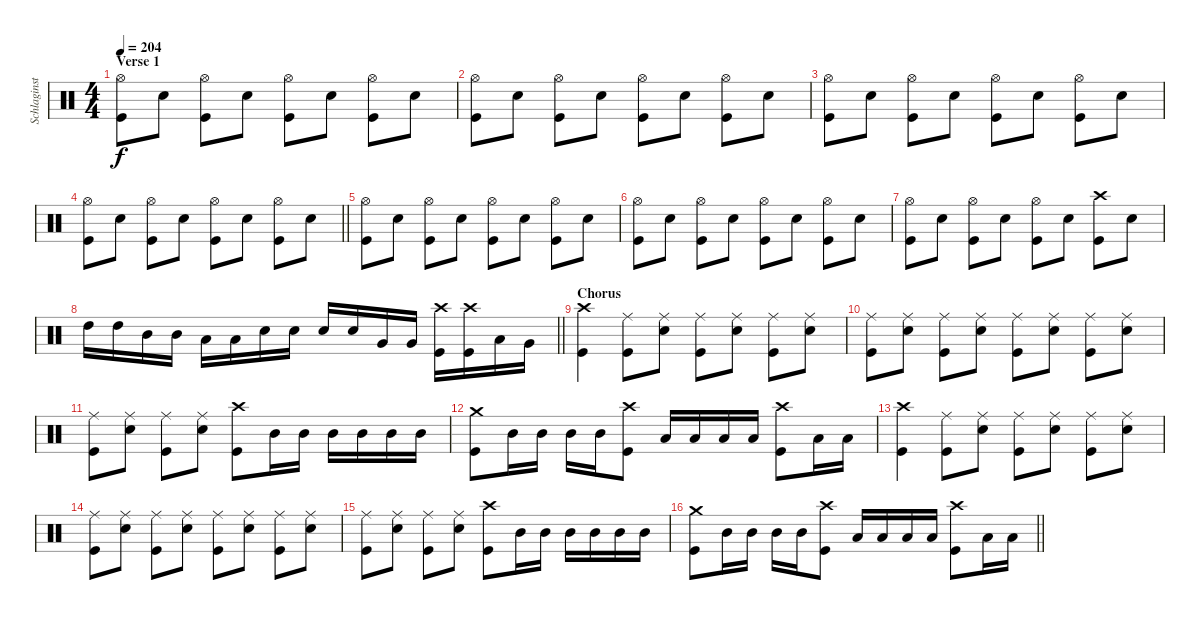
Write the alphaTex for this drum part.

\track ("Schlaginstrumente - Auswahl" "Schlaginst") {instrument percussion}
\staff {score}
\articulation defaults
\ts (4 4)
\section ("" "Verse 1")
\tempo 204
\clef neutral
\ks c
("Kick (hit)" "Hi-Hat (open)").8{dy f} "Snare (hit) 2".8 ("Kick (hit)" "Hi-Hat (open)").8 "Snare (hit) 2".8 ("Kick (hit)" "Hi-Hat (open)").8 "Snare (hit) 2".8 ("Kick (hit)" "Hi-Hat (open)").8 "Snare (hit) 2".8 |
("Kick (hit)" "Hi-Hat (open)").8 "Snare (hit) 2".8 ("Kick (hit)" "Hi-Hat (open)").8 "Snare (hit) 2".8 ("Kick (hit)" "Hi-Hat (open)").8 "Snare (hit) 2".8 ("Kick (hit)" "Hi-Hat (open)").8 "Snare (hit) 2".8 |
("Kick (hit)" "Hi-Hat (open)").8 "Snare (hit) 2".8 ("Kick (hit)" "Hi-Hat (open)").8 "Snare (hit) 2".8 ("Kick (hit)" "Hi-Hat (open)").8 "Snare (hit) 2".8 ("Kick (hit)" "Hi-Hat (open)").8 "Snare (hit) 2".8 |
\barLineRight lightlight
("Kick (hit)" "Hi-Hat (open)").8 "Snare (hit) 2".8 ("Kick (hit)" "Hi-Hat (open)").8 "Snare (hit) 2".8 ("Kick (hit)" "Hi-Hat (open)").8 "Snare (hit) 2".8 ("Kick (hit)" "Hi-Hat (open)").8 "Snare (hit) 2".8 |
("Kick (hit)" "Hi-Hat (open)").8 "Snare (hit) 2".8 ("Kick (hit)" "Hi-Hat (open)").8 "Snare (hit) 2".8 ("Kick (hit)" "Hi-Hat (open)").8 "Snare (hit) 2".8 ("Kick (hit)" "Hi-Hat (open)").8 "Snare (hit) 2".8 |
("Kick (hit)" "Hi-Hat (open)").8 "Snare (hit) 2".8 ("Kick (hit)" "Hi-Hat (open)").8 "Snare (hit) 2".8 ("Kick (hit)" "Hi-Hat (open)").8 "Snare (hit) 2".8 ("Kick (hit)" "Hi-Hat (open)").8 "Snare (hit) 2".8 |
("Kick (hit)" "Hi-Hat (open)").8 "Snare (hit) 2".8 ("Kick (hit)" "Hi-Hat (open)").8 "Snare (hit) 2".8 ("Kick (hit)" "Hi-Hat (open)").8 "Snare (hit) 2".8 ("Kick (hit)" "Crash high (hit)").8 "Snare (hit) 2".8 |
\barLineRight lightlight "High Tom (hit)".16 "High Tom (hit)".16 "Mid Tom (hit)".16 "Mid Tom (hit)".16 "Low Tom (hit)".16 "Low Tom (hit)".16 "Snare (hit) 2".16 "Snare (hit) 2".16 "Snare (hit) 2".16 "Snare (hit) 2".16 "Very Low Tom (hit)".16 "Very Low Tom (hit)".16
("Crash high (hit)" "Kick (hit)").16 ("Crash high (hit)" "Kick (hit)").16 "Low Tom (hit)".16 "Very Low Tom (hit)".16 |
\section ("" "Chorus")
("Kick (hit)" "Crash high (hit)").4 ("Kick (hit)" "Ride (middle)").8 ("Snare (hit) 2" "Ride (middle)").8 ("Kick (hit)" "Ride (middle)").8 ("Snare (hit) 2" "Ride (middle)").8 ("Kick (hit)" "Ride (middle)").8 ("Snare (hit) 2" "Ride (middle)").8 |
("Kick (hit)" "Ride (middle)").8 ("Snare (hit) 2" "Ride (middle)").8 ("Kick (hit)" "Ride (middle)").8 ("Snare (hit) 2" "Ride (middle)").8 ("Kick (hit)" "Ride (middle)").8 ("Snare (hit) 2" "Ride (middle)").8 ("Kick (hit)" "Ride (middle)").8 ("Snare (hit) 2" "Ride (middle)").8 |
("Kick (hit)" "Ride (middle)").8 ("Snare (hit) 2" "Ride (middle)").8 ("Kick (hit)" "Ride (middle)").8 ("Snare (hit) 2" "Ride (middle)").8 ("Kick (hit)" "Crash high (hit)").8 "Mid Tom (hit)".16 "Mid Tom (hit)".16 "Mid Tom (hit)".16 "Mid Tom (hit)".16 "Mid Tom (hit)".16 "Mid Tom (hit)".16 |
("Kick (hit)" "Crash medium (hit)").8 "Mid Tom (hit)".16 "Mid Tom (hit)".16 "Mid Tom (hit)".16 "Mid Tom (hit)".16 ("Kick (hit)" "Crash high (hit)").8 "Low Tom (hit)".16 "Low Tom (hit)".16 "Low Tom (hit)".16 "Low Tom (hit)".16 ("Kick (hit)" "Crash high (hit)").8 "Low Tom (hit)".16 "Low Tom (hit)".16 |
("Kick (hit)" "Crash high (hit)").4 ("Kick (hit)" "Ride (middle)").8 ("Snare (hit) 2" "Ride (middle)").8 ("Kick (hit)" "Ride (middle)").8 ("Snare (hit) 2" "Ride (middle)").8 ("Kick (hit)" "Ride (middle)").8 ("Snare (hit) 2" "Ride (middle)").8 |
("Kick (hit)" "Ride (middle)").8 ("Snare (hit) 2" "Ride (middle)").8 ("Kick (hit)" "Ride (middle)").8 ("Snare (hit) 2" "Ride (middle)").8 ("Kick (hit)" "Ride (middle)").8 ("Snare (hit) 2" "Ride (middle)").8 ("Kick (hit)" "Ride (middle)").8 ("Snare (hit) 2" "Ride (middle)").8 |
("Kick (hit)" "Ride (middle)").8 ("Snare (hit) 2" "Ride (middle)").8 ("Kick (hit)" "Ride (middle)").8 ("Snare (hit) 2" "Ride (middle)").8 ("Kick (hit)" "Crash high (hit)").8 "Mid Tom (hit)".16 "Mid Tom (hit)".16 "Mid Tom (hit)".16 "Mid Tom (hit)".16 "Mid Tom (hit)".16 "Mid Tom (hit)".16 |
\barLineRight lightlight
("Kick (hit)" "Crash medium (hit)").8 "Mid Tom (hit)".16 "Mid Tom (hit)".16 "Mid Tom (hit)".16 "Mid Tom (hit)".16 ("Kick (hit)" "Crash high (hit)").8 "Low Tom (hit)".16 "Low Tom (hit)".16 "Low Tom (hit)".16 "Low Tom (hit)".16 ("Kick (hit)" "Crash high (hit)").8 "Low Tom (hit)".16 "Low Tom (hit)".16
